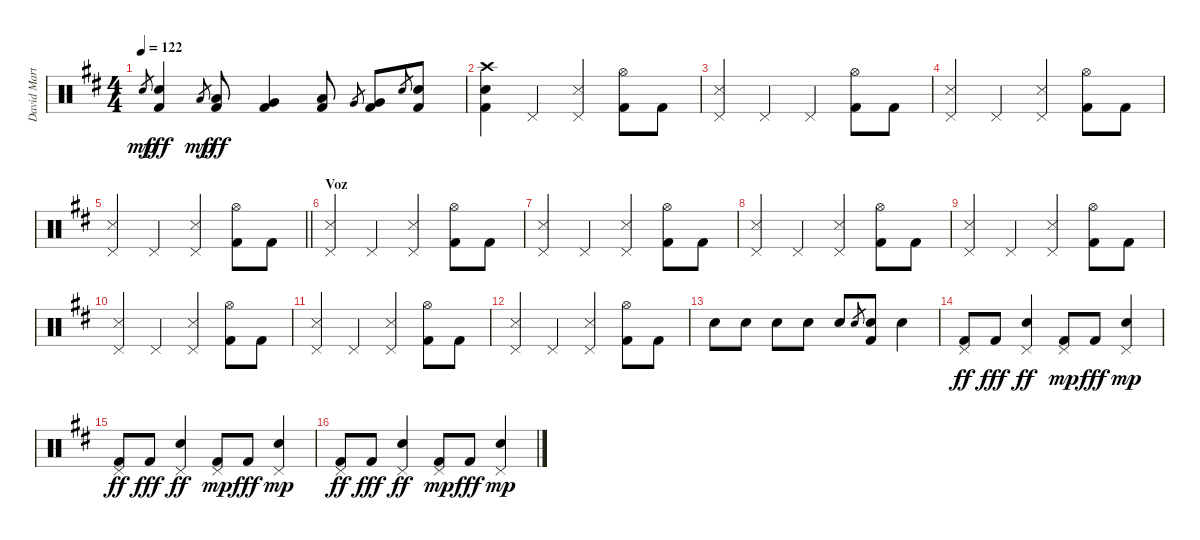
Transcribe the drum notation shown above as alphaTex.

\track ("David Martinez" "David Mart") {instrument percussion}
\staff {score}
\articulation defaults
\ts (4 4)
\tempo 122
\clef neutral
\ks d "Snare (hit) 2".8{gr dy mp}
("Snare (hit) 2" "Kick (hit) 2").4{dy fff} "Low Floor Tom (hit)".8{gr dy mp} ("Low Floor Tom (hit)" "Kick (hit) 2").8{dy fff} ("Kick (hit) 2" "Very Low Tom (hit)").4 ("Low Tom (hit)" "Kick (hit) 2").8 "Very Low Tom (hit)".8{gr} ("Kick (hit) 2" "Very Low Tom (hit)").8 "Snare (hit) 2".8{gr} ("Snare (hit) 2" "Kick (hit) 2").8 |
("Kick (hit) 2" "Snare (hit) 2" "Crash high (hit)").4 "Pedal Hi-Hat (hit)".4 ("Pedal Hi-Hat (hit)" "Snare (side stick) 3").4 ("Hi-Hat (open)" "Kick (hit) 2").8 "Kick (hit) 2".8 |
("Pedal Hi-Hat (hit)" "Snare (side stick) 3").4 "Pedal Hi-Hat (hit)".4 "Pedal Hi-Hat (hit)".4 ("Hi-Hat (open)" "Kick (hit) 2").8 "Kick (hit) 2".8 |
("Pedal Hi-Hat (hit)" "Snare (side stick) 3").4 "Pedal Hi-Hat (hit)".4 ("Pedal Hi-Hat (hit)" "Snare (side stick) 3").4 ("Hi-Hat (open)" "Kick (hit) 2").8 "Kick (hit) 2".8 |
\barLineRight lightlight
("Pedal Hi-Hat (hit)" "Snare (side stick) 3").4 "Pedal Hi-Hat (hit)".4 ("Pedal Hi-Hat (hit)" "Snare (side stick) 3").4 ("Hi-Hat (open)" "Kick (hit) 2").8 "Kick (hit) 2".8 |
\section ("" "Voz")
("Pedal Hi-Hat (hit)" "Snare (side stick) 3").4 "Pedal Hi-Hat (hit)".4 ("Pedal Hi-Hat (hit)" "Snare (side stick) 3").4 ("Hi-Hat (open)" "Kick (hit) 2").8 "Kick (hit) 2".8 |
("Pedal Hi-Hat (hit)" "Snare (side stick) 3").4 "Pedal Hi-Hat (hit)".4 ("Pedal Hi-Hat (hit)" "Snare (side stick) 3").4 ("Hi-Hat (open)" "Kick (hit) 2").8 "Kick (hit) 2".8 |
("Pedal Hi-Hat (hit)" "Snare (side stick) 3").4 "Pedal Hi-Hat (hit)".4 ("Pedal Hi-Hat (hit)" "Snare (side stick) 3").4 ("Hi-Hat (open)" "Kick (hit) 2").8 "Kick (hit) 2".8 |
("Pedal Hi-Hat (hit)" "Snare (side stick) 3").4 "Pedal Hi-Hat (hit)".4 ("Pedal Hi-Hat (hit)" "Snare (side stick) 3").4 ("Hi-Hat (open)" "Kick (hit) 2").8 "Kick (hit) 2".8 |
("Pedal Hi-Hat (hit)" "Snare (side stick) 3").4 "Pedal Hi-Hat (hit)".4 ("Pedal Hi-Hat (hit)" "Snare (side stick) 3").4 ("Hi-Hat (open)" "Kick (hit) 2").8 "Kick (hit) 2".8 |
("Pedal Hi-Hat (hit)" "Snare (side stick) 3").4 "Pedal Hi-Hat (hit)".4 ("Pedal Hi-Hat (hit)" "Snare (side stick) 3").4 ("Hi-Hat (open)" "Kick (hit) 2").8 "Kick (hit) 2".8 |
("Pedal Hi-Hat (hit)" "Snare (side stick) 3").4 "Pedal Hi-Hat (hit)".4 ("Pedal Hi-Hat (hit)" "Snare (side stick) 3").4 ("Hi-Hat (open)" "Kick (hit) 2").8 "Kick (hit) 2".8 |
"Snare (hit) 2".8 "Snare (hit) 2".8 "Snare (hit) 2".8 "Snare (hit) 2".8 "Snare (hit) 2".8 "Snare (hit) 2".8{gr} ("Snare (hit) 2" "Kick (hit) 2").8 "Snare (hit) 2".4 |
("Kick (hit) 2" "Pedal Hi-Hat (hit)").8{dy ff} "Kick (hit) 2".8{dy fff} ("Snare (hit) 2" "Pedal Hi-Hat (hit)").4{dy ff} ("Pedal Hi-Hat (hit)" "Kick (hit) 2").8{dy mp} "Kick (hit) 2".8{dy fff} ("Snare (hit) 2" "Pedal Hi-Hat (hit)").4{dy mp} |
("Kick (hit) 2" "Pedal Hi-Hat (hit)").8{dy ff} "Kick (hit) 2".8{dy fff} ("Snare (hit) 2" "Pedal Hi-Hat (hit)").4{dy ff} ("Pedal Hi-Hat (hit)" "Kick (hit) 2").8{dy mp} "Kick (hit) 2".8{dy fff} ("Snare (hit) 2" "Pedal Hi-Hat (hit)").4{dy mp} |
("Kick (hit) 2" "Pedal Hi-Hat (hit)").8{dy ff} "Kick (hit) 2".8{dy fff} ("Snare (hit) 2" "Pedal Hi-Hat (hit)").4{dy ff} ("Pedal Hi-Hat (hit)" "Kick (hit) 2").8{dy mp} "Kick (hit) 2".8{dy fff} ("Snare (hit) 2" "Pedal Hi-Hat (hit)").4{dy mp}
